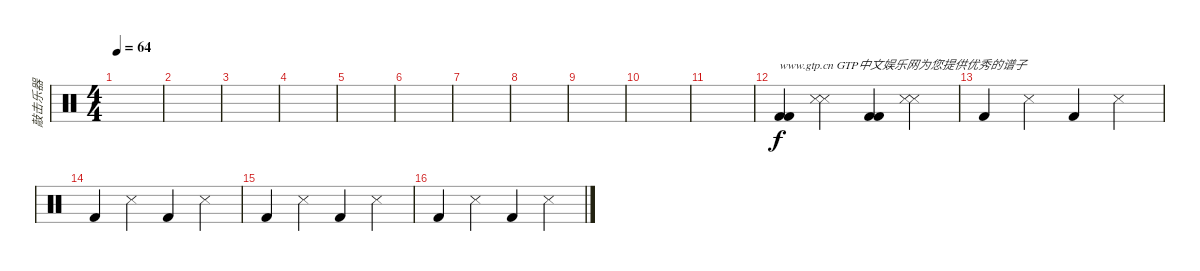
\track ("敲击乐器" "敲击乐器") {instrument percussion}
\staff {score}
\articulation defaults
\ts (4 4)
\tempo 64
\clef neutral
\ks c
|
|
|
|
|
|
|
|
|
|
|
("Kick (hit) 2" "Kick (hit) 2").4{txt "www.gtp.cn GTP中文娱乐网为您提供优秀的谱子"} ("Snare (side stick) 3" "Snare (side stick) 3").4 ("Kick (hit) 2" "Kick (hit) 2").4 ("Snare (side stick) 3" "Snare (side stick) 3").4 |
"Kick (hit) 2".4 "Snare (side stick) 3".4 "Kick (hit) 2".4 "Snare (side stick) 3".4 |
"Kick (hit) 2".4 "Snare (side stick) 3".4 "Kick (hit) 2".4 "Snare (side stick) 3".4 |
"Kick (hit) 2".4 "Snare (side stick) 3".4 "Kick (hit) 2".4 "Snare (side stick) 3".4 |
"Kick (hit) 2".4 "Snare (side stick) 3".4 "Kick (hit) 2".4 "Snare (side stick) 3".4
